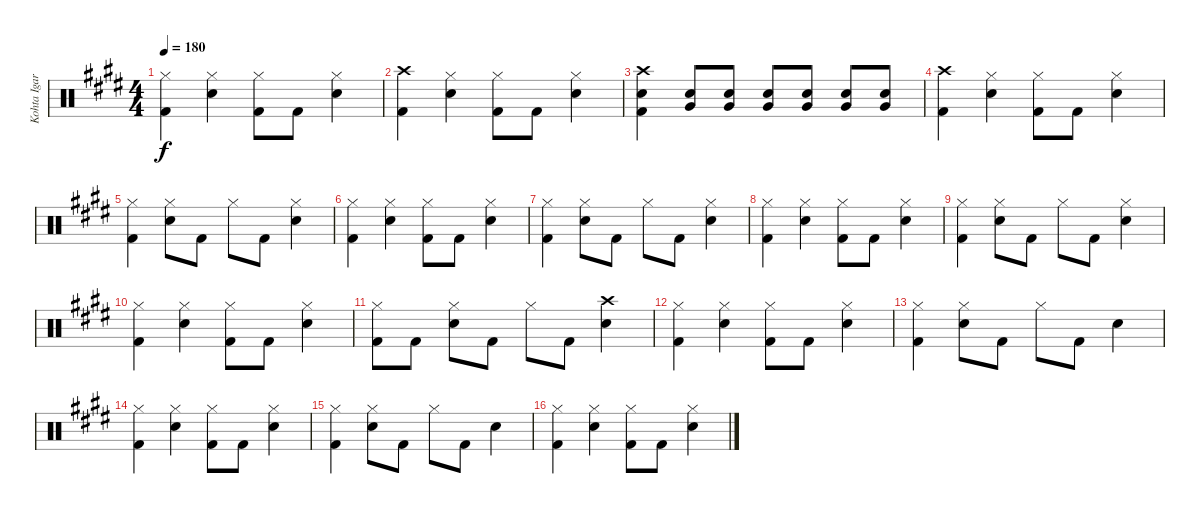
\track ("Kohta Igarashi" "Kohta Igar") {instrument percussion}
\staff {score}
\articulation defaults
\ts (4 4)
\tempo 180
\clef neutral
\ks e
("Hi-Hat (closed)" "Kick (hit) 2").4{dy f} ("Hi-Hat (closed)" "Electric Snare (hit)").4 ("Hi-Hat (closed)" "Kick (hit) 2").8 "Kick (hit) 2".8 ("Hi-Hat (closed)" "Electric Snare (hit)").4 |
("Crash high (hit)" "Kick (hit) 2").4 ("Hi-Hat (closed)" "Electric Snare (hit)").4 ("Hi-Hat (closed)" "Kick (hit) 2").8 "Kick (hit) 2".8 ("Hi-Hat (closed)" "Electric Snare (hit)").4 |
("Crash high (hit)" "Electric Snare (hit)" "Kick (hit) 2").4 ("Electric Snare (hit)" "Very Low Tom (hit)").8 ("Electric Snare (hit)" "Very Low Tom (hit)").8 ("Electric Snare (hit)" "Very Low Tom (hit)").8 ("Electric Snare (hit)" "Very Low Tom (hit)").8 ("Electric Snare (hit)" "Very Low Tom (hit)").8 ("Electric Snare (hit)" "Very Low Tom (hit)").8 |
("Crash high (hit)" "Kick (hit) 2").4 ("Hi-Hat (closed)" "Electric Snare (hit)").4 ("Hi-Hat (closed)" "Kick (hit) 2").8 "Kick (hit) 2".8 ("Hi-Hat (closed)" "Electric Snare (hit)").4 |
("Hi-Hat (closed)" "Kick (hit) 2").4 ("Hi-Hat (closed)" "Electric Snare (hit)").8 "Kick (hit) 2".8 "Hi-Hat (closed)".8 "Kick (hit) 2".8 ("Hi-Hat (closed)" "Electric Snare (hit)").4 |
("Hi-Hat (closed)" "Kick (hit) 2").4 ("Hi-Hat (closed)" "Electric Snare (hit)").4 ("Hi-Hat (closed)" "Kick (hit) 2").8 "Kick (hit) 2".8 ("Hi-Hat (closed)" "Electric Snare (hit)").4 |
("Hi-Hat (closed)" "Kick (hit) 2").4 ("Hi-Hat (closed)" "Electric Snare (hit)").8 "Kick (hit) 2".8 "Hi-Hat (closed)".8 "Kick (hit) 2".8 ("Hi-Hat (closed)" "Electric Snare (hit)").4 |
("Hi-Hat (closed)" "Kick (hit) 2").4 ("Hi-Hat (closed)" "Electric Snare (hit)").4 ("Hi-Hat (closed)" "Kick (hit) 2").8 "Kick (hit) 2".8 ("Hi-Hat (closed)" "Electric Snare (hit)").4 |
("Hi-Hat (closed)" "Kick (hit) 2").4 ("Hi-Hat (closed)" "Electric Snare (hit)").8 "Kick (hit) 2".8 "Hi-Hat (closed)".8 "Kick (hit) 2".8 ("Hi-Hat (closed)" "Electric Snare (hit)").4 |
("Hi-Hat (closed)" "Kick (hit) 2").4 ("Hi-Hat (closed)" "Electric Snare (hit)").4 ("Hi-Hat (closed)" "Kick (hit) 2").8 "Kick (hit) 2".8 ("Hi-Hat (closed)" "Electric Snare (hit)").4 |
("Hi-Hat (closed)" "Kick (hit) 2").8 "Kick (hit) 2".8 ("Hi-Hat (closed)" "Electric Snare (hit)").8 "Kick (hit) 2".8 "Hi-Hat (closed)".8 "Kick (hit) 2".8 ("Crash high (hit)" "Electric Snare (hit)").4 |
("Hi-Hat (closed)" "Kick (hit) 2").4 ("Hi-Hat (closed)" "Electric Snare (hit)").4 ("Hi-Hat (closed)" "Kick (hit) 2").8 "Kick (hit) 2".8 ("Hi-Hat (closed)" "Electric Snare (hit)").4 |
("Hi-Hat (closed)" "Kick (hit) 2").4 ("Hi-Hat (closed)" "Electric Snare (hit)").8 "Kick (hit) 2".8 "Hi-Hat (closed)".8 "Kick (hit) 2".8 "Electric Snare (hit)".4 |
("Hi-Hat (closed)" "Kick (hit) 2").4 ("Hi-Hat (closed)" "Electric Snare (hit)").4 ("Hi-Hat (closed)" "Kick (hit) 2").8 "Kick (hit) 2".8 ("Hi-Hat (closed)" "Electric Snare (hit)").4 |
("Hi-Hat (closed)" "Kick (hit) 2").4 ("Hi-Hat (closed)" "Electric Snare (hit)").8 "Kick (hit) 2".8 "Hi-Hat (closed)".8 "Kick (hit) 2".8 "Electric Snare (hit)".4 |
("Hi-Hat (closed)" "Kick (hit) 2").4 ("Hi-Hat (closed)" "Electric Snare (hit)").4 ("Hi-Hat (closed)" "Kick (hit) 2").8 "Kick (hit) 2".8 ("Hi-Hat (closed)" "Electric Snare (hit)").4
